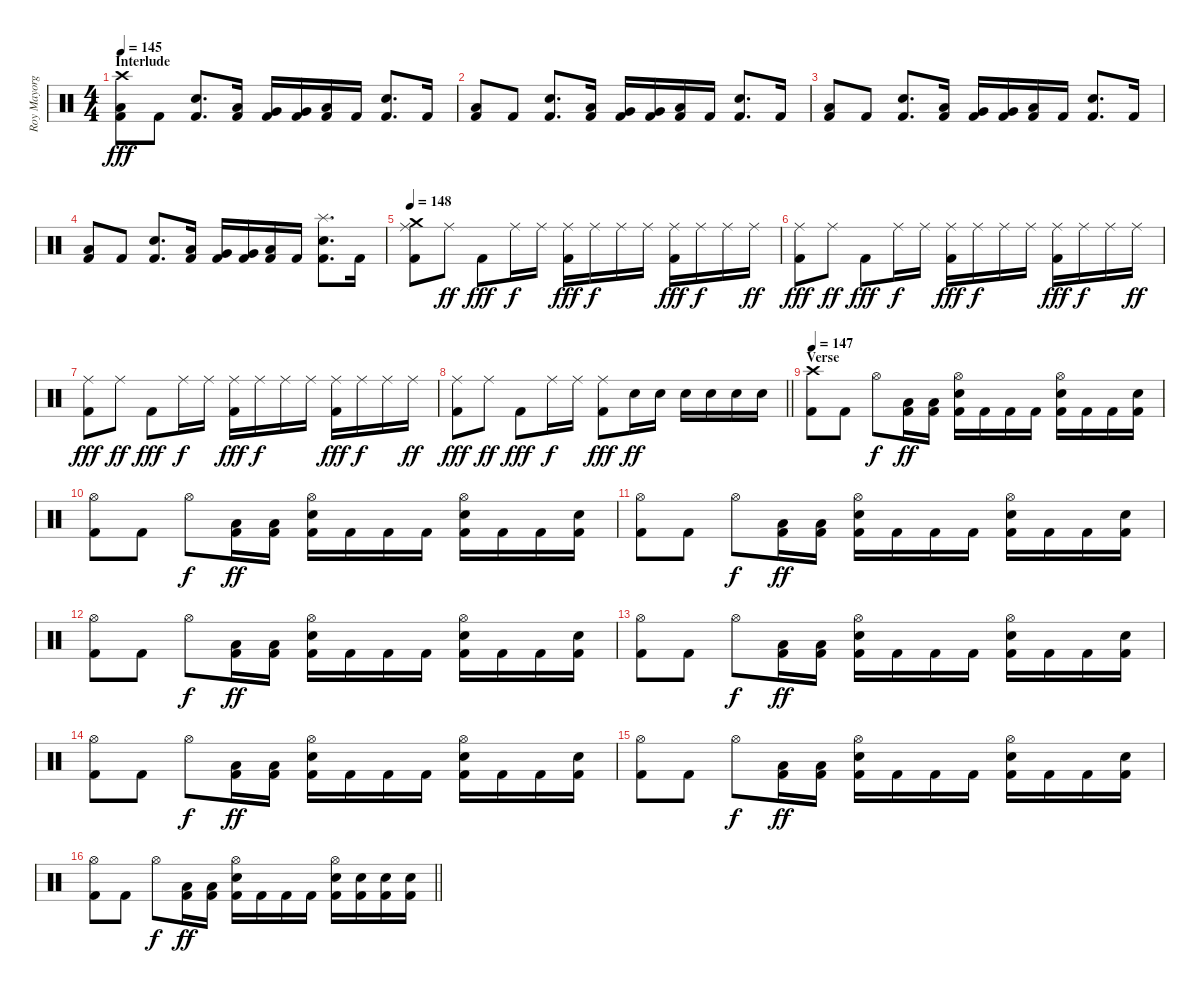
\track ("Roy Mayorga (Drums)" "Roy Mayorg") {instrument percussion}
\staff {score}
\articulation defaults
\ts (4 4)
\section ("" "Interlude")
\tempo 145
\clef neutral
\ks c
("Crash high (hit)" "Low Tom (hit)" "Kick (hit) 2").8{dy fff} "Kick (hit) 2".8 ("Electric Snare (hit)" "Kick (hit) 2").8{d} ("Low Tom (hit)" "Kick (hit) 2").16 ("Very Low Tom (hit)" "Kick (hit) 2").16 ("Very Low Tom (hit)" "Kick (hit) 2").16 ("Low Floor Tom (hit)" "Kick (hit) 2").16 "Kick (hit) 2".16 ("Electric Snare (hit)" "Kick (hit) 2").8{d} "Kick (hit) 2".16 |
("Low Tom (hit)" "Kick (hit) 2").8 "Kick (hit) 2".8 ("Electric Snare (hit)" "Kick (hit) 2").8{d} ("Low Tom (hit)" "Kick (hit) 2").16 ("Very Low Tom (hit)" "Kick (hit) 2").16 ("Very Low Tom (hit)" "Kick (hit) 2").16 ("Low Floor Tom (hit)" "Kick (hit) 2").16 "Kick (hit) 2".16 ("Electric Snare (hit)" "Kick (hit) 2").8{d} "Kick (hit) 2".16 |
("Low Tom (hit)" "Kick (hit) 2").8 "Kick (hit) 2".8 ("Electric Snare (hit)" "Kick (hit) 2").8{d} ("Low Tom (hit)" "Kick (hit) 2").16 ("Very Low Tom (hit)" "Kick (hit) 2").16 ("Very Low Tom (hit)" "Kick (hit) 2").16 ("Low Floor Tom (hit)" "Kick (hit) 2").16 "Kick (hit) 2".16 ("Electric Snare (hit)" "Kick (hit) 2").8{d} "Kick (hit) 2".16 |
("Low Tom (hit)" "Kick (hit) 2").8 "Kick (hit) 2".8 ("Electric Snare (hit)" "Kick (hit) 2").8{d} ("Low Tom (hit)" "Kick (hit) 2").16 ("Very Low Tom (hit)" "Kick (hit) 2").16 ("Very Low Tom (hit)" "Kick (hit) 2").16 ("Low Floor Tom (hit)" "Kick (hit) 2").16 "Kick (hit) 2".16 ("Splash (hit)" "Electric Snare (hit)" "Kick (hit) 2").8{d} "Kick (hit) 2".16 |
\tempo 148
("Crash medium (hit)" "Ride (middle)" "Kick (hit) 2").8{volume 14} "Ride (middle)".8{dy ff} "Kick (hit) 2".8{dy fff} "Ride (middle)".16{dy f} "Ride (middle)".16 ("Ride (middle)" "Kick (hit) 2").16{dy fff} "Ride (middle)".16{dy f} "Ride (middle)".16 "Ride (middle)".16 ("Ride (middle)" "Kick (hit) 2").16{dy fff} "Ride (middle)".16{dy f} "Ride (middle)".16 "Ride (middle)".16{dy ff} |
("Ride (middle)" "Kick (hit) 2").8{dy fff} "Ride (middle)".8{dy ff} "Kick (hit) 2".8{dy fff} "Ride (middle)".16{dy f} "Ride (middle)".16 ("Ride (middle)" "Kick (hit) 2").16{dy fff} "Ride (middle)".16{dy f} "Ride (middle)".16 "Ride (middle)".16 ("Ride (middle)" "Kick (hit) 2").16{dy fff} "Ride (middle)".16{dy f} "Ride (middle)".16 "Ride (middle)".16{dy ff} |
("Ride (middle)" "Kick (hit) 2").8{dy fff} "Ride (middle)".8{dy ff} "Kick (hit) 2".8{dy fff} "Ride (middle)".16{dy f} "Ride (middle)".16 ("Ride (middle)" "Kick (hit) 2").16{dy fff} "Ride (middle)".16{dy f} "Ride (middle)".16 "Ride (middle)".16 ("Ride (middle)" "Kick (hit) 2").16{dy fff} "Ride (middle)".16{dy f} "Ride (middle)".16 "Ride (middle)".16{dy ff} |
\barLineRight lightlight
("Ride (middle)" "Kick (hit) 2").8{dy fff} "Ride (middle)".8{dy ff} "Kick (hit) 2".8{dy fff} "Ride (middle)".16{dy f} "Ride (middle)".16 ("Ride (middle)" "Kick (hit) 2").8{dy fff} "Electric Snare (hit)".16{dy ff} "Electric Snare (hit)".16 "Electric Snare (hit)".16 "Electric Snare (hit)".16 "Electric Snare (hit)".16 "Electric Snare (hit)".16 |
\section ("" "Verse")
\tempo 147
("Crash high (hit)" "Kick (hit) 2").8{volume 13} "Kick (hit) 2".8 "Hi-Hat (open)".8{dy f} ("Low Tom (hit)" "Kick (hit) 2").16{dy ff} ("Low Tom (hit)" "Kick (hit) 2").16 ("Hi-Hat (open)" "Electric Snare (hit)" "Kick (hit) 2").16 "Kick (hit) 2".16 "Kick (hit) 2".16 "Kick (hit) 2".16 ("Hi-Hat (open)" "Electric Snare (hit)" "Kick (hit) 2").16 "Kick (hit) 2".16 "Kick (hit) 2".16 ("Electric Snare (hit)" "Kick (hit) 2").16 |
("Hi-Hat (open)" "Kick (hit) 2").8 "Kick (hit) 2".8 "Hi-Hat (open)".8{dy f} ("Low Tom (hit)" "Kick (hit) 2").16{dy ff} ("Low Tom (hit)" "Kick (hit) 2").16 ("Hi-Hat (open)" "Electric Snare (hit)" "Kick (hit) 2").16 "Kick (hit) 2".16 "Kick (hit) 2".16 "Kick (hit) 2".16 ("Hi-Hat (open)" "Electric Snare (hit)" "Kick (hit) 2").16 "Kick (hit) 2".16 "Kick (hit) 2".16 ("Electric Snare (hit)" "Kick (hit) 2").16 |
("Hi-Hat (open)" "Kick (hit) 2").8 "Kick (hit) 2".8 "Hi-Hat (open)".8{dy f} ("Low Tom (hit)" "Kick (hit) 2").16{dy ff} ("Low Tom (hit)" "Kick (hit) 2").16 ("Hi-Hat (open)" "Electric Snare (hit)" "Kick (hit) 2").16 "Kick (hit) 2".16 "Kick (hit) 2".16 "Kick (hit) 2".16 ("Hi-Hat (open)" "Electric Snare (hit)" "Kick (hit) 2").16 "Kick (hit) 2".16 "Kick (hit) 2".16 ("Electric Snare (hit)" "Kick (hit) 2").16 |
("Hi-Hat (open)" "Kick (hit) 2").8 "Kick (hit) 2".8 "Hi-Hat (open)".8{dy f} ("Low Tom (hit)" "Kick (hit) 2").16{dy ff} ("Low Tom (hit)" "Kick (hit) 2").16 ("Hi-Hat (open)" "Electric Snare (hit)" "Kick (hit) 2").16 "Kick (hit) 2".16 "Kick (hit) 2".16 "Kick (hit) 2".16 ("Hi-Hat (open)" "Electric Snare (hit)" "Kick (hit) 2").16 "Kick (hit) 2".16 "Kick (hit) 2".16 ("Electric Snare (hit)" "Kick (hit) 2").16 |
("Hi-Hat (open)" "Kick (hit) 2").8 "Kick (hit) 2".8 "Hi-Hat (open)".8{dy f} ("Low Tom (hit)" "Kick (hit) 2").16{dy ff} ("Low Tom (hit)" "Kick (hit) 2").16 ("Hi-Hat (open)" "Electric Snare (hit)" "Kick (hit) 2").16 "Kick (hit) 2".16 "Kick (hit) 2".16 "Kick (hit) 2".16 ("Hi-Hat (open)" "Electric Snare (hit)" "Kick (hit) 2").16 "Kick (hit) 2".16 "Kick (hit) 2".16 ("Electric Snare (hit)" "Kick (hit) 2").16 |
("Hi-Hat (open)" "Kick (hit) 2").8 "Kick (hit) 2".8 "Hi-Hat (open)".8{dy f} ("Low Tom (hit)" "Kick (hit) 2").16{dy ff} ("Low Tom (hit)" "Kick (hit) 2").16 ("Hi-Hat (open)" "Electric Snare (hit)" "Kick (hit) 2").16 "Kick (hit) 2".16 "Kick (hit) 2".16 "Kick (hit) 2".16 ("Hi-Hat (open)" "Electric Snare (hit)" "Kick (hit) 2").16 "Kick (hit) 2".16 "Kick (hit) 2".16 ("Electric Snare (hit)" "Kick (hit) 2").16 |
("Hi-Hat (open)" "Kick (hit) 2").8 "Kick (hit) 2".8 "Hi-Hat (open)".8{dy f} ("Low Tom (hit)" "Kick (hit) 2").16{dy ff} ("Low Tom (hit)" "Kick (hit) 2").16 ("Hi-Hat (open)" "Electric Snare (hit)" "Kick (hit) 2").16 "Kick (hit) 2".16 "Kick (hit) 2".16 "Kick (hit) 2".16 ("Hi-Hat (open)" "Electric Snare (hit)" "Kick (hit) 2").16 "Kick (hit) 2".16 "Kick (hit) 2".16 ("Electric Snare (hit)" "Kick (hit) 2").16 |
\barLineRight lightlight
("Hi-Hat (open)" "Kick (hit) 2").8 "Kick (hit) 2".8 "Hi-Hat (open)".8{dy f} ("Low Tom (hit)" "Kick (hit) 2").16{dy ff} ("Low Tom (hit)" "Kick (hit) 2").16 ("Hi-Hat (open)" "Electric Snare (hit)" "Kick (hit) 2").16 "Kick (hit) 2".16 "Kick (hit) 2".16 "Kick (hit) 2".16 ("Hi-Hat (open)" "Electric Snare (hit)" "Kick (hit) 2").16 ("Electric Snare (hit)" "Kick (hit) 2").16 ("Electric Snare (hit)" "Kick (hit) 2").16 ("Electric Snare (hit)" "Kick (hit) 2").16
